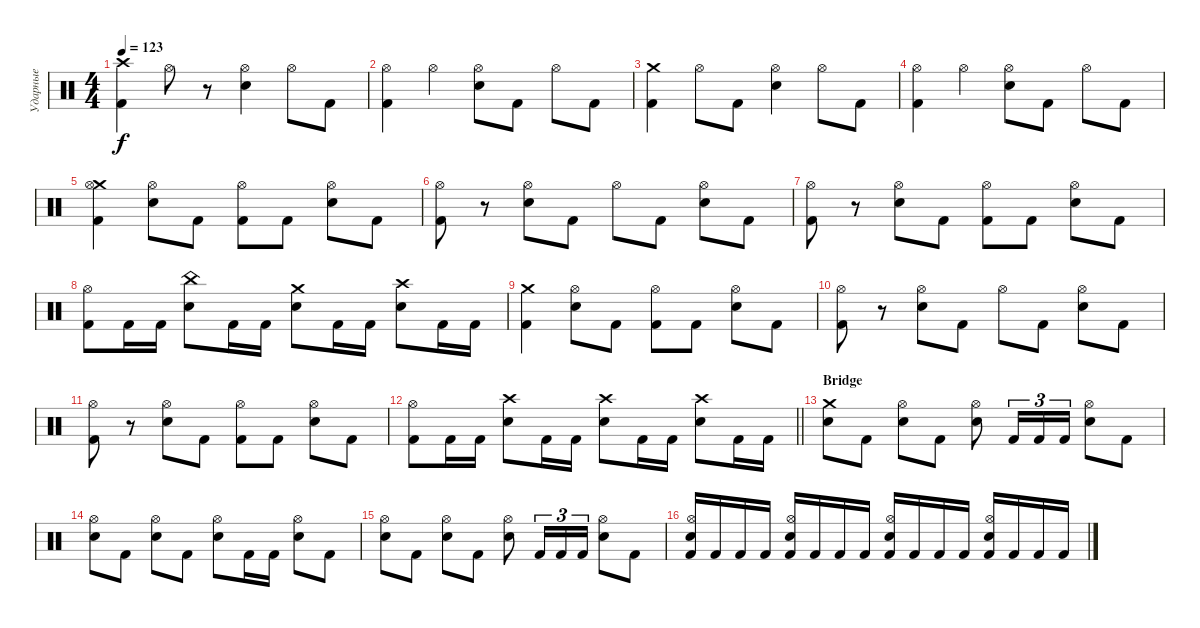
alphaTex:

\track ("Ударные" "Ударные") {instrument percussion}
\staff {score}
\articulation defaults
\ts (4 4)
\tempo 123
\clef neutral
\ks c
("Crash high (hit)" "Kick (hit) 2").4{dy f} "Hi-Hat (open)".8 r.8 ("Snare (hit) 2" "Hi-Hat (open)").4 "Hi-Hat (open)".8 "Kick (hit) 2".8 |
("Kick (hit) 2" "Hi-Hat (open)").4 "Hi-Hat (open)".4 ("Snare (hit) 2" "Hi-Hat (open)").8 "Kick (hit) 2".8 "Hi-Hat (open)".8 "Kick (hit) 2".8 |
("Crash medium (hit)" "Kick (hit) 2").4 "Hi-Hat (open)".8 "Kick (hit) 2".8 ("Snare (hit) 2" "Hi-Hat (open)").4 "Hi-Hat (open)".8 "Kick (hit) 2".8 |
("Kick (hit) 2" "Hi-Hat (open)").4 "Hi-Hat (open)".4 ("Snare (hit) 2" "Hi-Hat (open)").8 "Kick (hit) 2".8 "Hi-Hat (open)".8 "Kick (hit) 2".8 |
("Crash medium (hit)" "Kick (hit) 2" "Hi-Hat (open)").4 ("Snare (hit) 2" "Hi-Hat (open)").8 "Kick (hit) 2".8 ("Kick (hit) 2" "Hi-Hat (open)").8 "Kick (hit) 2".8 ("Snare (hit) 2" "Hi-Hat (open)").8 "Kick (hit) 2".8 |
("Kick (hit) 2" "Hi-Hat (open)").8 r.8 ("Snare (hit) 2" "Hi-Hat (open)").8 "Kick (hit) 2".8 "Hi-Hat (open)".8 "Kick (hit) 2".8 ("Snare (hit) 2" "Hi-Hat (open)").8 "Kick (hit) 2".8 |
("Kick (hit) 2" "Hi-Hat (open)").8 r.8 ("Snare (hit) 2" "Hi-Hat (open)").8 "Kick (hit) 2".8 ("Kick (hit) 2" "Hi-Hat (open)").8 "Kick (hit) 2".8 ("Snare (hit) 2" "Hi-Hat (open)").8 "Kick (hit) 2".8 |
("Kick (hit) 2" "Hi-Hat (open)").8 "Kick (hit) 2".16 "Kick (hit) 2".16 ("China (hit)" "Snare (hit) 2").8 "Kick (hit) 2".16 "Kick (hit) 2".16 ("Crash medium (hit)" "Snare (hit) 2").8 "Kick (hit) 2".16 "Kick (hit) 2".16 ("Crash high (hit)" "Snare (hit) 2").8 "Kick (hit) 2".16 "Kick (hit) 2".16 |
("Crash medium (hit)" "Kick (hit) 2").4 ("Snare (hit) 2" "Hi-Hat (open)").8 "Kick (hit) 2".8 ("Kick (hit) 2" "Hi-Hat (open)").8 "Kick (hit) 2".8 ("Snare (hit) 2" "Hi-Hat (open)").8 "Kick (hit) 2".8 |
("Kick (hit) 2" "Hi-Hat (open)").8 r.8 ("Snare (hit) 2" "Hi-Hat (open)").8 "Kick (hit) 2".8 "Hi-Hat (open)".8 "Kick (hit) 2".8 ("Snare (hit) 2" "Hi-Hat (open)").8 "Kick (hit) 2".8 |
("Kick (hit) 2" "Hi-Hat (open)").8 r.8 ("Snare (hit) 2" "Hi-Hat (open)").8 "Kick (hit) 2".8 ("Kick (hit) 2" "Hi-Hat (open)").8 "Kick (hit) 2".8 ("Snare (hit) 2" "Hi-Hat (open)").8 "Kick (hit) 2".8 |
\barLineRight lightlight
("Kick (hit) 2" "Hi-Hat (open)").8 "Kick (hit) 2".16 "Kick (hit) 2".16 ("Crash high (hit)" "Snare (hit) 2").8 "Kick (hit) 2".16 "Kick (hit) 2".16 ("Crash high (hit)" "Snare (hit) 2").8 "Kick (hit) 2".16 "Kick (hit) 2".16 ("Crash high (hit)" "Snare (hit) 2").8 "Kick (hit) 2".16 "Kick (hit) 2".16 |
\section ("" "Bridge")
("Crash medium (hit)" "Snare (hit) 2").8 "Kick (hit) 2".8 ("Snare (hit) 2" "Hi-Hat (open)").8 "Kick (hit) 2".8 ("Snare (hit) 2" "Hi-Hat (open)").8 "Kick (hit) 2".16{tu (3 2)} "Kick (hit) 2".16{tu (3 2)} "Kick (hit) 2".16{tu (3 2)} ("Snare (hit) 2" "Hi-Hat (open)").8 "Kick (hit) 2".8 |
("Snare (hit) 2" "Hi-Hat (open)").8 "Kick (hit) 2".8 ("Snare (hit) 2" "Hi-Hat (open)").8 "Kick (hit) 2".8 ("Snare (hit) 2" "Hi-Hat (open)").8 "Kick (hit) 2".16 "Kick (hit) 2".16 ("Snare (hit) 2" "Hi-Hat (open)").8 "Kick (hit) 2".8 |
("Snare (hit) 2" "Hi-Hat (open)").8 "Kick (hit) 2".8 ("Snare (hit) 2" "Hi-Hat (open)").8 "Kick (hit) 2".8 ("Snare (hit) 2" "Hi-Hat (open)").8 "Kick (hit) 2".16{tu (3 2)} "Kick (hit) 2".16{tu (3 2)} "Kick (hit) 2".16{tu (3 2)} ("Snare (hit) 2" "Hi-Hat (open)").8 "Kick (hit) 2".8 |
("Snare (hit) 2" "Kick (hit) 2" "Hi-Hat (open)").16 "Kick (hit) 2".16 "Kick (hit) 2".16 "Kick (hit) 2".16 ("Snare (hit) 2" "Kick (hit) 2" "Hi-Hat (open)").16 "Kick (hit) 2".16 "Kick (hit) 2".16 "Kick (hit) 2".16 ("Snare (hit) 2" "Kick (hit) 2" "Hi-Hat (open)").16 "Kick (hit) 2".16 "Kick (hit) 2".16 "Kick (hit) 2".16 ("Snare (hit) 2" "Kick (hit) 2" "Hi-Hat (open)").16 "Kick (hit) 2".16 "Kick (hit) 2".16 "Kick (hit) 2".16
